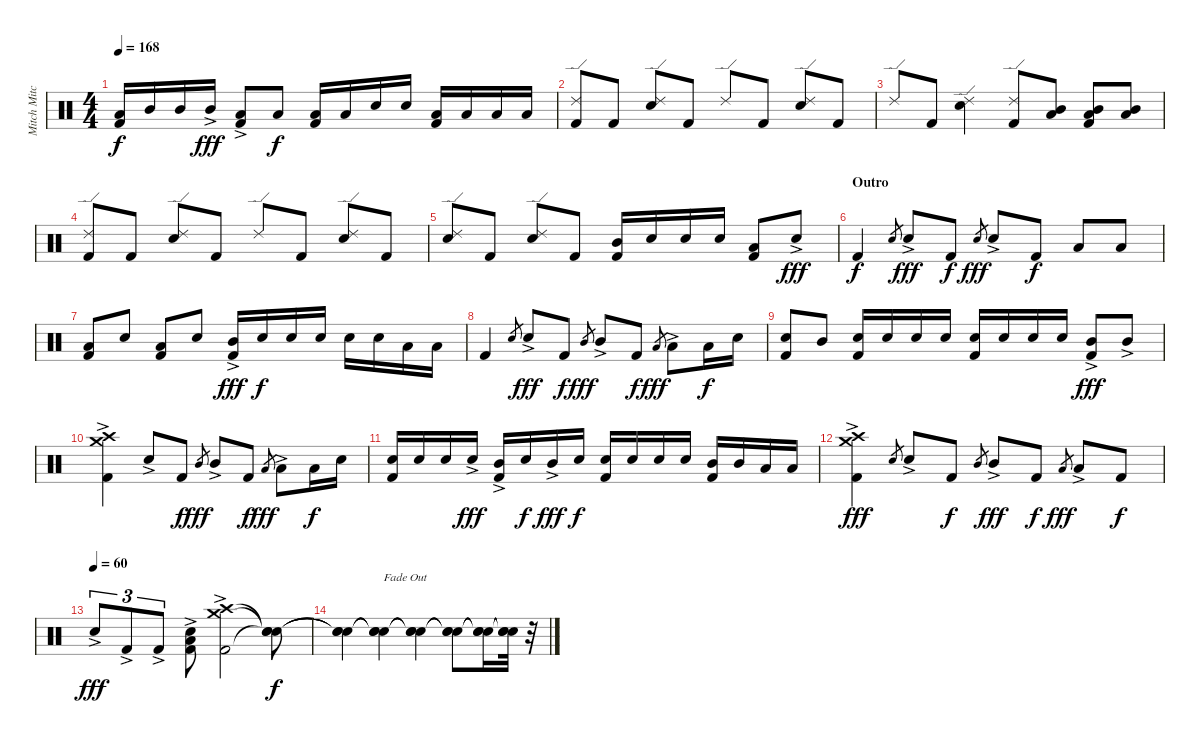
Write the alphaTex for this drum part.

\track ("Mitch Mitchell" "Mitch Mitc") {instrument percussion}
\staff {score}
\articulation defaults
\ts (4 4)
\tempo 168
\clef neutral
\ks c
("Low Tom (hit)" "Kick (hit) 2").16{dy f} "Mid Tom (hit)".16 "Mid Tom (hit)".16 "Mid Tom (hit)"{ac}.16{dy fff} ("Low Tom (hit)"{ac} "Kick (hit) 2").8 "Low Tom (hit)".8{dy f} ("Low Tom (hit)" "Kick (hit) 2").16 "Low Tom (hit)".16 "Snare (hit) 2".16 "Snare (hit) 2".16 ("Low Tom (hit)" "Kick (hit) 2").16 "Low Tom (hit)".16 "Low Tom (hit)".16 "Low Tom (hit)".16 |
("Ride (edge) 2" "Kick (hit) 2").8 "Kick (hit) 2".8 ("Ride (edge) 2" "Snare (hit) 2").8 "Kick (hit) 2".8 "Ride (edge) 2".8 "Kick (hit) 2".8 ("Ride (edge) 2" "Snare (hit) 2").8 "Kick (hit) 2".8 |
"Ride (edge) 2".8 "Kick (hit) 2".8 ("Ride (edge) 2" "Snare (hit) 2").4 ("Ride (edge) 2" "Kick (hit) 2").8 ("Mid Tom (hit)" "Low Tom (hit)").8 ("Mid Tom (hit)" "Low Tom (hit)" "Kick (hit) 2").8 ("Mid Tom (hit)" "Low Tom (hit)").8 |
("Ride (edge) 2" "Kick (hit) 2").8 "Kick (hit) 2".8 ("Ride (edge) 2" "Snare (hit) 2").8 "Kick (hit) 2".8 "Ride (edge) 2".8 "Kick (hit) 2".8 ("Ride (edge) 2" "Snare (hit) 2").8 "Kick (hit) 2".8 |
("Ride (edge) 2" "Snare (hit) 2").8 "Kick (hit) 2".8 ("Ride (edge) 2" "Snare (hit) 2").8 "Kick (hit) 2".8 ("Mid Tom (hit)" "Kick (hit) 2").16 "Snare (hit) 2".16 "Snare (hit) 2".16 "Snare (hit) 2".16 ("Low Tom (hit)" "Kick (hit) 2").8 "Snare (hit) 2"{ac}.8{dy fff} |
\section ("" "Outro")
"Kick (hit) 2".4{dy f} "Snare (hit) 2".8{gr} "Snare (hit) 2"{ac}.8{dy fff} "Kick (hit) 2".8{dy f} "Snare (hit) 2".8{gr dy fff} "Snare (hit) 2"{ac}.8 "Kick (hit) 2".8{dy f} "Low Tom (hit)".8 "Low Tom (hit)".8 |
("Low Tom (hit)" "Kick (hit) 2").8 "Snare (hit) 2".8 ("Low Tom (hit)" "Kick (hit) 2").8 "Snare (hit) 2".8 ("Mid Tom (hit)"{ac} "Kick (hit) 2").16{dy fff} "Snare (hit) 2".16{dy f} "Snare (hit) 2".16 "Snare (hit) 2".16 "Snare (hit) 2".16 "Snare (hit) 2".16 "Low Tom (hit)".16 "Low Tom (hit)".16 |
"Kick (hit) 2".4 "Snare (hit) 2".8{gr} "Snare (hit) 2"{ac}.8{dy fff} "Kick (hit) 2".8{dy f} "Mid Tom (hit)".8{gr dy fff} "Mid Tom (hit)"{ac}.8 "Kick (hit) 2".8{dy f} "Low Tom (hit)".8{gr dy fff} "Low Tom (hit)"{ac}.8 "Low Tom (hit)".16{dy f} "Snare (hit) 2".16 |
("Snare (hit) 2" "Kick (hit) 2").8 "Mid Tom (hit)".8 ("Snare (hit) 2" "Kick (hit) 2").16 "Snare (hit) 2".16 "Snare (hit) 2".16 "Snare (hit) 2".16 ("Snare (hit) 2" "Kick (hit) 2").16 "Snare (hit) 2".16 "Snare (hit) 2".16 "Snare (hit) 2".16 ("Mid Tom (hit)"{ac} "Kick (hit) 2").8{dy fff} "Mid Tom (hit)"{ac}.8 |
("Crash high (hit)"{ac} "Crash medium (hit)"{ac} "Kick (hit) 2"{ac}).4 "Snare (hit) 2"{ac}.8 "Kick (hit) 2".8{dy f} "Mid Tom (hit)".8{gr dy fff} "Mid Tom (hit)"{ac}.8 "Kick (hit) 2".8{dy f} "Low Tom (hit)".8{gr dy fff} "Low Tom (hit)"{ac}.8 "Low Tom (hit)".16{dy f} "Snare (hit) 2".16 |
("Snare (hit) 2" "Kick (hit) 2").16 "Snare (hit) 2".16 "Snare (hit) 2".16 "Snare (hit) 2"{ac}.16{dy fff} ("Mid Tom (hit)"{ac} "Kick (hit) 2").16 "Snare (hit) 2".16{dy f} "Mid Tom (hit)"{ac}.16{dy fff} "Snare (hit) 2".16{dy f} ("Snare (hit) 2" "Kick (hit) 2").16 "Snare (hit) 2".16 "Snare (hit) 2".16 "Snare (hit) 2".16 ("Mid Tom (hit)" "Kick (hit) 2").16 "Mid Tom (hit)".16 "Low Tom (hit)".16 "Low Tom (hit)".16 |
("Crash high (hit)"{ac} "Crash medium (hit)"{ac} "Kick (hit) 2"{ac}).4{dy fff} "Snare (hit) 2".8{gr} "Snare (hit) 2"{ac}.8 "Kick (hit) 2".8{dy f} "Mid Tom (hit)".8{gr} "Mid Tom (hit)"{ac}.8{dy fff} "Kick (hit) 2".8{dy f} "Low Tom (hit)".8{gr dy fff} "Low Tom (hit)"{ac}.8 "Kick (hit) 2".8{dy f} |
\tempo (60)
"Snare (hit) 2"{ac}.8{tu (3 2) dy fff} "Kick (hit) 2"{ac}.8{tu (3 2)} "Kick (hit) 2"{ac}.8{tu (3 2)} ("Snare (hit) 2"{ac} "Low Tom (hit)"{ac} "Kick (hit) 2"{ac}).8 ("Crash medium (hit)"{tr (57 16) ac} "Crash high (hit)"{tr (49 16) ac} "Kick (hit) 2"{tr (36 32) ac}).2 ("Snare (hit)"{t} "Snare (hit)"{t} "Snare (hit)"{t}).8{dy f} |
("Snare (hit)"{t} "Snare (hit)"{t} "Snare (hit)"{t}).4 ("Snare (hit)"{t} "Snare (hit)"{t} "Snare (hit)"{t}).4{txt "Fade Out"} ("Snare (hit)"{t} "Snare (hit)"{t} "Snare (hit)"{t}).4 ("Snare (hit)"{t} "Snare (hit)"{t} "Snare (hit)"{t}).8 ("Snare (hit)"{t} "Snare (hit)"{t} "Snare (hit)"{t}).16 ("Snare (hit)"{t} "Snare (hit)"{t} "Snare (hit)"{t}).32 r.32
